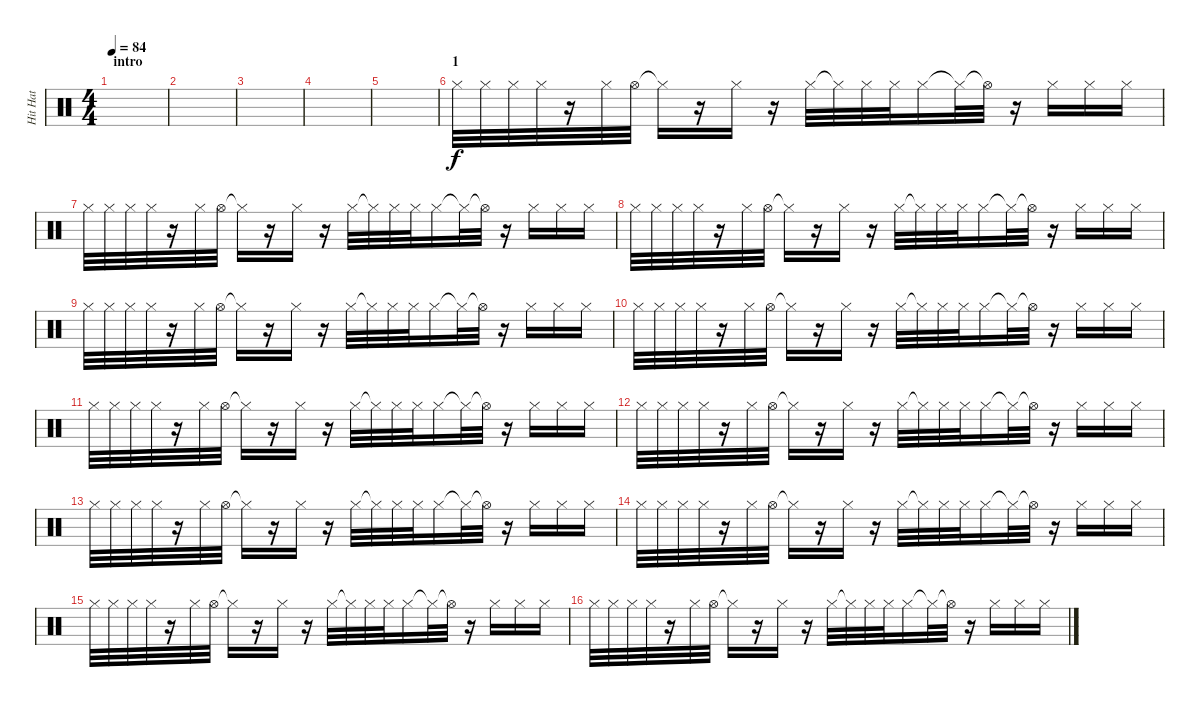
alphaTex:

\track ("Hit Hat" "Hit Hat") {instrument percussion}
\staff {score}
\articulation defaults
\ts (4 4)
\section ("" "intro")
\tempo 84
\clef neutral
\ks c
|
|
|
|
|
\section ("" "1")
"Hi-Hat (closed)".32 "Hi-Hat (closed)".32 "Hi-Hat (closed)".32 "Hi-Hat (closed)".32 r.16 "Hi-Hat (closed)".32 "Hi-Hat (open)".32 "Hi-Hat (closed)"{t}.16 r.16 "Hi-Hat (closed)".16 r.16 "Hi-Hat (closed)".32 "Hi-Hat (closed)"{t}.32 "Hi-Hat (closed)".32 "Hi-Hat (closed)".32 "Hi-Hat (closed)".16 "Hi-Hat (closed)"{t}.32 "Hi-Hat (open)"{t}.32 r.16 "Hi-Hat (closed)".16 "Hi-Hat (closed)".16 "Hi-Hat (closed)".16 |
"Hi-Hat (closed)".32 "Hi-Hat (closed)".32 "Hi-Hat (closed)".32 "Hi-Hat (closed)".32 r.16 "Hi-Hat (closed)".32 "Hi-Hat (open)".32 "Hi-Hat (closed)"{t}.16 r.16 "Hi-Hat (closed)".16 r.16 "Hi-Hat (closed)".32 "Hi-Hat (closed)"{t}.32 "Hi-Hat (closed)".32 "Hi-Hat (closed)".32 "Hi-Hat (closed)".16 "Hi-Hat (closed)"{t}.32 "Hi-Hat (open)"{t}.32 r.16 "Hi-Hat (closed)".16 "Hi-Hat (closed)".16 "Hi-Hat (closed)".16 |
"Hi-Hat (closed)".32 "Hi-Hat (closed)".32 "Hi-Hat (closed)".32 "Hi-Hat (closed)".32 r.16 "Hi-Hat (closed)".32 "Hi-Hat (open)".32 "Hi-Hat (closed)"{t}.16 r.16 "Hi-Hat (closed)".16 r.16 "Hi-Hat (closed)".32 "Hi-Hat (closed)"{t}.32 "Hi-Hat (closed)".32 "Hi-Hat (closed)".32 "Hi-Hat (closed)".16 "Hi-Hat (closed)"{t}.32 "Hi-Hat (open)"{t}.32 r.16 "Hi-Hat (closed)".16 "Hi-Hat (closed)".16 "Hi-Hat (closed)".16 |
"Hi-Hat (closed)".32 "Hi-Hat (closed)".32 "Hi-Hat (closed)".32 "Hi-Hat (closed)".32 r.16 "Hi-Hat (closed)".32 "Hi-Hat (open)".32 "Hi-Hat (closed)"{t}.16 r.16 "Hi-Hat (closed)".16 r.16 "Hi-Hat (closed)".32 "Hi-Hat (closed)"{t}.32 "Hi-Hat (closed)".32 "Hi-Hat (closed)".32 "Hi-Hat (closed)".16 "Hi-Hat (closed)"{t}.32 "Hi-Hat (open)"{t}.32 r.16 "Hi-Hat (closed)".16 "Hi-Hat (closed)".16 "Hi-Hat (closed)".16 |
"Hi-Hat (closed)".32 "Hi-Hat (closed)".32 "Hi-Hat (closed)".32 "Hi-Hat (closed)".32 r.16 "Hi-Hat (closed)".32 "Hi-Hat (open)".32 "Hi-Hat (closed)"{t}.16 r.16 "Hi-Hat (closed)".16 r.16 "Hi-Hat (closed)".32 "Hi-Hat (closed)"{t}.32 "Hi-Hat (closed)".32 "Hi-Hat (closed)".32 "Hi-Hat (closed)".16 "Hi-Hat (closed)"{t}.32 "Hi-Hat (open)"{t}.32 r.16 "Hi-Hat (closed)".16 "Hi-Hat (closed)".16 "Hi-Hat (closed)".16 |
"Hi-Hat (closed)".32 "Hi-Hat (closed)".32 "Hi-Hat (closed)".32 "Hi-Hat (closed)".32 r.16 "Hi-Hat (closed)".32 "Hi-Hat (open)".32 "Hi-Hat (closed)"{t}.16 r.16 "Hi-Hat (closed)".16 r.16 "Hi-Hat (closed)".32 "Hi-Hat (closed)"{t}.32 "Hi-Hat (closed)".32 "Hi-Hat (closed)".32 "Hi-Hat (closed)".16 "Hi-Hat (closed)"{t}.32 "Hi-Hat (open)"{t}.32 r.16 "Hi-Hat (closed)".16 "Hi-Hat (closed)".16 "Hi-Hat (closed)".16 |
"Hi-Hat (closed)".32 "Hi-Hat (closed)".32 "Hi-Hat (closed)".32 "Hi-Hat (closed)".32 r.16 "Hi-Hat (closed)".32 "Hi-Hat (open)".32 "Hi-Hat (closed)"{t}.16 r.16 "Hi-Hat (closed)".16 r.16 "Hi-Hat (closed)".32 "Hi-Hat (closed)"{t}.32 "Hi-Hat (closed)".32 "Hi-Hat (closed)".32 "Hi-Hat (closed)".16 "Hi-Hat (closed)"{t}.32 "Hi-Hat (open)"{t}.32 r.16 "Hi-Hat (closed)".16 "Hi-Hat (closed)".16 "Hi-Hat (closed)".16 |
"Hi-Hat (closed)".32 "Hi-Hat (closed)".32 "Hi-Hat (closed)".32 "Hi-Hat (closed)".32 r.16 "Hi-Hat (closed)".32 "Hi-Hat (open)".32 "Hi-Hat (closed)"{t}.16 r.16 "Hi-Hat (closed)".16 r.16 "Hi-Hat (closed)".32 "Hi-Hat (closed)"{t}.32 "Hi-Hat (closed)".32 "Hi-Hat (closed)".32 "Hi-Hat (closed)".16 "Hi-Hat (closed)"{t}.32 "Hi-Hat (open)"{t}.32 r.16 "Hi-Hat (closed)".16 "Hi-Hat (closed)".16 "Hi-Hat (closed)".16 |
"Hi-Hat (closed)".32 "Hi-Hat (closed)".32 "Hi-Hat (closed)".32 "Hi-Hat (closed)".32 r.16 "Hi-Hat (closed)".32 "Hi-Hat (open)".32 "Hi-Hat (closed)"{t}.16 r.16 "Hi-Hat (closed)".16 r.16 "Hi-Hat (closed)".32 "Hi-Hat (closed)"{t}.32 "Hi-Hat (closed)".32 "Hi-Hat (closed)".32 "Hi-Hat (closed)".16 "Hi-Hat (closed)"{t}.32 "Hi-Hat (open)"{t}.32 r.16 "Hi-Hat (closed)".16 "Hi-Hat (closed)".16 "Hi-Hat (closed)".16 |
"Hi-Hat (closed)".32 "Hi-Hat (closed)".32 "Hi-Hat (closed)".32 "Hi-Hat (closed)".32 r.16 "Hi-Hat (closed)".32 "Hi-Hat (open)".32 "Hi-Hat (closed)"{t}.16 r.16 "Hi-Hat (closed)".16 r.16 "Hi-Hat (closed)".32 "Hi-Hat (closed)"{t}.32 "Hi-Hat (closed)".32 "Hi-Hat (closed)".32 "Hi-Hat (closed)".16 "Hi-Hat (closed)"{t}.32 "Hi-Hat (open)"{t}.32 r.16 "Hi-Hat (closed)".16 "Hi-Hat (closed)".16 "Hi-Hat (closed)".16 |
"Hi-Hat (closed)".32 "Hi-Hat (closed)".32 "Hi-Hat (closed)".32 "Hi-Hat (closed)".32 r.16 "Hi-Hat (closed)".32 "Hi-Hat (open)".32 "Hi-Hat (closed)"{t}.16 r.16 "Hi-Hat (closed)".16 r.16 "Hi-Hat (closed)".32 "Hi-Hat (closed)"{t}.32 "Hi-Hat (closed)".32 "Hi-Hat (closed)".32 "Hi-Hat (closed)".16 "Hi-Hat (closed)"{t}.32 "Hi-Hat (open)"{t}.32 r.16 "Hi-Hat (closed)".16 "Hi-Hat (closed)".16 "Hi-Hat (closed)".16
